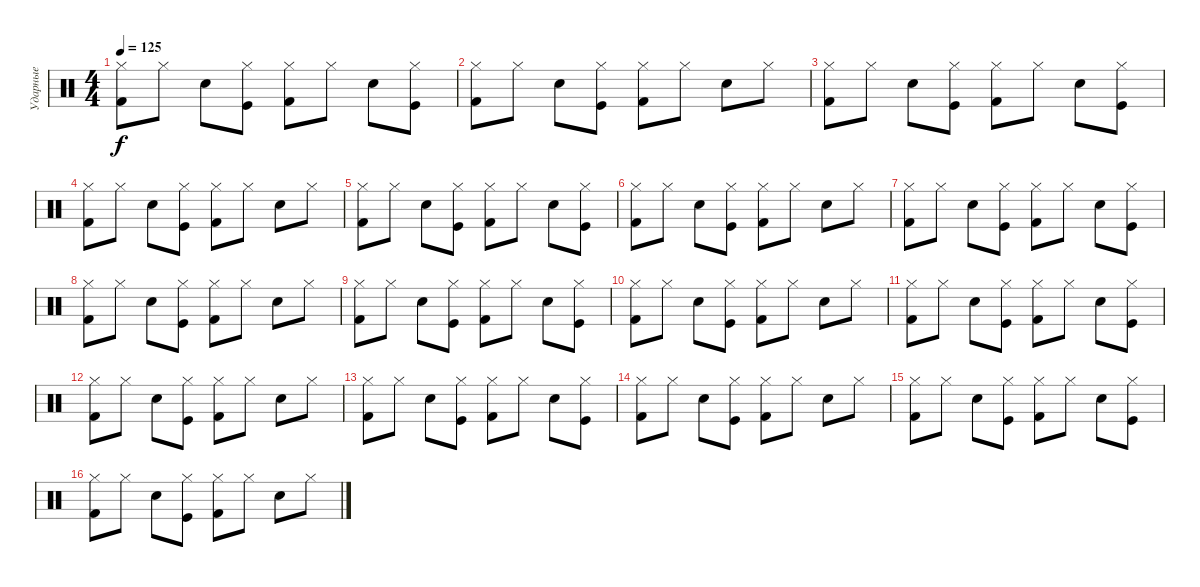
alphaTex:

\track ("Ударные" "Ударные") {instrument percussion}
\staff {score}
\articulation defaults
\ts (4 4)
\tempo 125
\clef neutral
\ks c
("Hi-Hat (closed)" "Kick (hit) 2").8{dy f} "Hi-Hat (closed)".8 "Electric Snare (hit)".8 ("Hi-Hat (closed)" "Kick (hit)").8 ("Hi-Hat (closed)" "Kick (hit) 2").8 "Hi-Hat (closed)".8 "Electric Snare (hit)".8 ("Hi-Hat (closed)" "Kick (hit)").8 |
("Hi-Hat (closed)" "Kick (hit) 2").8 "Hi-Hat (closed)".8 "Electric Snare (hit)".8 ("Hi-Hat (closed)" "Kick (hit)").8 ("Hi-Hat (closed)" "Kick (hit) 2").8 "Hi-Hat (closed)".8 "Electric Snare (hit)".8 "Hi-Hat (closed)".8 |
("Hi-Hat (closed)" "Kick (hit) 2").8 "Hi-Hat (closed)".8 "Electric Snare (hit)".8 ("Hi-Hat (closed)" "Kick (hit)").8 ("Hi-Hat (closed)" "Kick (hit) 2").8 "Hi-Hat (closed)".8 "Electric Snare (hit)".8 ("Hi-Hat (closed)" "Kick (hit)").8 |
("Hi-Hat (closed)" "Kick (hit) 2").8 "Hi-Hat (closed)".8 "Electric Snare (hit)".8 ("Hi-Hat (closed)" "Kick (hit)").8 ("Hi-Hat (closed)" "Kick (hit) 2").8 "Hi-Hat (closed)".8 "Electric Snare (hit)".8 "Hi-Hat (closed)".8 |
("Hi-Hat (closed)" "Kick (hit) 2").8 "Hi-Hat (closed)".8 "Electric Snare (hit)".8 ("Hi-Hat (closed)" "Kick (hit)").8 ("Hi-Hat (closed)" "Kick (hit) 2").8 "Hi-Hat (closed)".8 "Electric Snare (hit)".8 ("Hi-Hat (closed)" "Kick (hit)").8 |
("Hi-Hat (closed)" "Kick (hit) 2").8 "Hi-Hat (closed)".8 "Electric Snare (hit)".8 ("Hi-Hat (closed)" "Kick (hit)").8 ("Hi-Hat (closed)" "Kick (hit) 2").8 "Hi-Hat (closed)".8 "Electric Snare (hit)".8 "Hi-Hat (closed)".8 |
("Hi-Hat (closed)" "Kick (hit) 2").8 "Hi-Hat (closed)".8 "Electric Snare (hit)".8 ("Hi-Hat (closed)" "Kick (hit)").8 ("Hi-Hat (closed)" "Kick (hit) 2").8 "Hi-Hat (closed)".8 "Electric Snare (hit)".8 ("Hi-Hat (closed)" "Kick (hit)").8 |
("Hi-Hat (closed)" "Kick (hit) 2").8 "Hi-Hat (closed)".8 "Electric Snare (hit)".8 ("Hi-Hat (closed)" "Kick (hit)").8 ("Hi-Hat (closed)" "Kick (hit) 2").8 "Hi-Hat (closed)".8 "Electric Snare (hit)".8 "Hi-Hat (closed)".8 |
("Hi-Hat (closed)" "Kick (hit) 2").8 "Hi-Hat (closed)".8 "Electric Snare (hit)".8 ("Hi-Hat (closed)" "Kick (hit)").8 ("Hi-Hat (closed)" "Kick (hit) 2").8 "Hi-Hat (closed)".8 "Electric Snare (hit)".8 ("Hi-Hat (closed)" "Kick (hit)").8 |
("Hi-Hat (closed)" "Kick (hit) 2").8 "Hi-Hat (closed)".8 "Electric Snare (hit)".8 ("Hi-Hat (closed)" "Kick (hit)").8 ("Hi-Hat (closed)" "Kick (hit) 2").8 "Hi-Hat (closed)".8 "Electric Snare (hit)".8 "Hi-Hat (closed)".8 |
("Hi-Hat (closed)" "Kick (hit) 2").8 "Hi-Hat (closed)".8 "Electric Snare (hit)".8 ("Hi-Hat (closed)" "Kick (hit)").8 ("Hi-Hat (closed)" "Kick (hit) 2").8 "Hi-Hat (closed)".8 "Electric Snare (hit)".8 ("Hi-Hat (closed)" "Kick (hit)").8 |
("Hi-Hat (closed)" "Kick (hit) 2").8 "Hi-Hat (closed)".8 "Electric Snare (hit)".8 ("Hi-Hat (closed)" "Kick (hit)").8 ("Hi-Hat (closed)" "Kick (hit) 2").8 "Hi-Hat (closed)".8 "Electric Snare (hit)".8 "Hi-Hat (closed)".8 |
("Hi-Hat (closed)" "Kick (hit) 2").8 "Hi-Hat (closed)".8 "Electric Snare (hit)".8 ("Hi-Hat (closed)" "Kick (hit)").8 ("Hi-Hat (closed)" "Kick (hit) 2").8 "Hi-Hat (closed)".8 "Electric Snare (hit)".8 ("Hi-Hat (closed)" "Kick (hit)").8 |
("Hi-Hat (closed)" "Kick (hit) 2").8 "Hi-Hat (closed)".8 "Electric Snare (hit)".8 ("Hi-Hat (closed)" "Kick (hit)").8 ("Hi-Hat (closed)" "Kick (hit) 2").8 "Hi-Hat (closed)".8 "Electric Snare (hit)".8 "Hi-Hat (closed)".8 |
("Hi-Hat (closed)" "Kick (hit) 2").8 "Hi-Hat (closed)".8 "Electric Snare (hit)".8 ("Hi-Hat (closed)" "Kick (hit)").8 ("Hi-Hat (closed)" "Kick (hit) 2").8 "Hi-Hat (closed)".8 "Electric Snare (hit)".8 ("Hi-Hat (closed)" "Kick (hit)").8 |
("Hi-Hat (closed)" "Kick (hit) 2").8 "Hi-Hat (closed)".8 "Electric Snare (hit)".8 ("Hi-Hat (closed)" "Kick (hit)").8 ("Hi-Hat (closed)" "Kick (hit) 2").8 "Hi-Hat (closed)".8 "Electric Snare (hit)".8 "Hi-Hat (closed)".8
